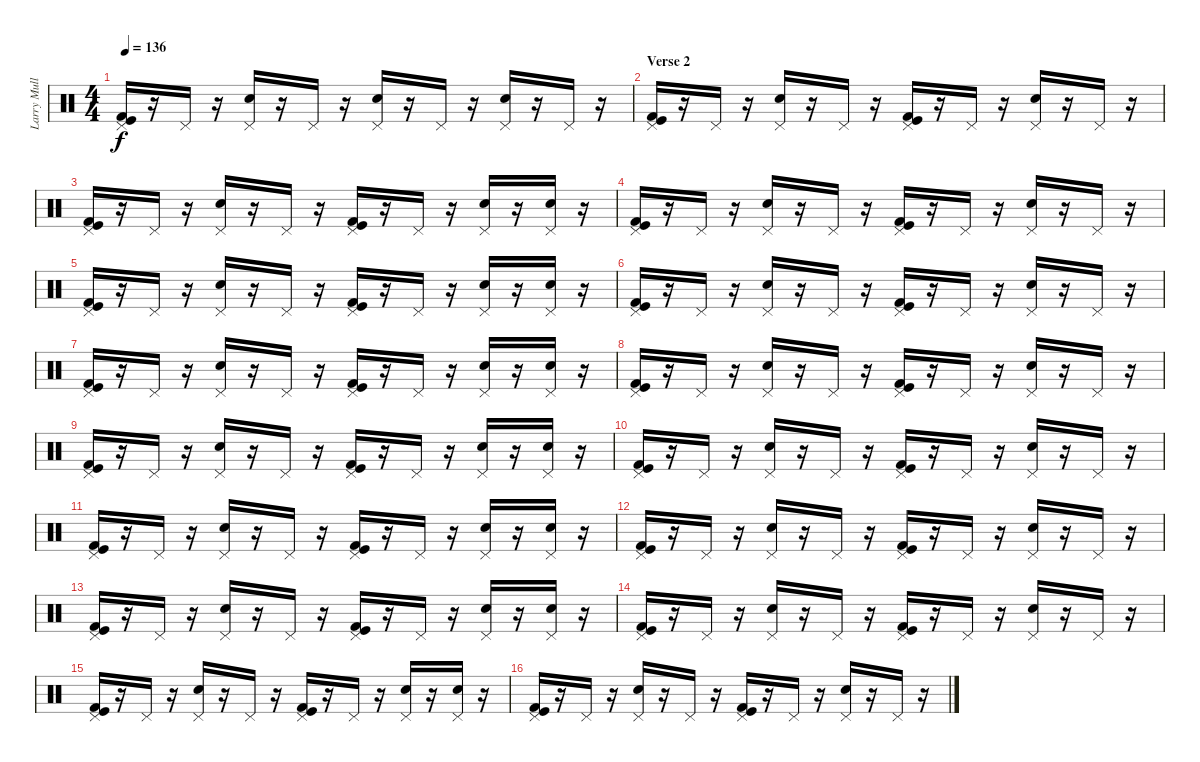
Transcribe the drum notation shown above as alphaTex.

\track ("Larry Mullen Jr." "Larry Mull") {instrument percussion}
\staff {score}
\articulation defaults
\ts (4 4)
\tempo 136
\clef neutral
\ks c
("Kick (hit) 2" "Kick (hit)" "Pedal Hi-Hat (hit)").16{dy f} r.16 "Pedal Hi-Hat (hit)".16 r.16 ("Electric Snare (hit)" "Pedal Hi-Hat (hit)").16 r.16 "Pedal Hi-Hat (hit)".16 r.16 ("Snare (hit) 2" "Pedal Hi-Hat (hit)").16 r.16 "Pedal Hi-Hat (hit)".16 r.16 ("Snare (hit) 2" "Pedal Hi-Hat (hit)").16 r.16 "Pedal Hi-Hat (hit)".16 r.16 |
\section ("" "Verse 2")
("Kick (hit) 2" "Kick (hit)" "Pedal Hi-Hat (hit)").16 r.16 "Pedal Hi-Hat (hit)".16 r.16 ("Snare (hit) 2" "Pedal Hi-Hat (hit)").16 r.16 "Pedal Hi-Hat (hit)".16 r.16 ("Kick (hit) 2" "Kick (hit)" "Pedal Hi-Hat (hit)").16 r.16 "Pedal Hi-Hat (hit)".16 r.16 ("Snare (hit) 2" "Pedal Hi-Hat (hit)").16 r.16 "Pedal Hi-Hat (hit)".16 r.16 |
("Kick (hit) 2" "Kick (hit)" "Pedal Hi-Hat (hit)").16 r.16 "Pedal Hi-Hat (hit)".16 r.16 ("Snare (hit) 2" "Pedal Hi-Hat (hit)").16 r.16 "Pedal Hi-Hat (hit)".16 r.16 ("Kick (hit) 2" "Kick (hit)" "Pedal Hi-Hat (hit)").16 r.16 "Pedal Hi-Hat (hit)".16 r.16 ("Snare (hit) 2" "Pedal Hi-Hat (hit)").16 r.16 ("Snare (hit) 2" "Pedal Hi-Hat (hit)").16 r.16 |
("Kick (hit) 2" "Kick (hit)" "Pedal Hi-Hat (hit)").16 r.16 "Pedal Hi-Hat (hit)".16 r.16 ("Snare (hit) 2" "Pedal Hi-Hat (hit)").16 r.16 "Pedal Hi-Hat (hit)".16 r.16 ("Kick (hit) 2" "Kick (hit)" "Pedal Hi-Hat (hit)").16 r.16 "Pedal Hi-Hat (hit)".16 r.16 ("Snare (hit) 2" "Pedal Hi-Hat (hit)").16 r.16 "Pedal Hi-Hat (hit)".16 r.16 |
("Kick (hit) 2" "Kick (hit)" "Pedal Hi-Hat (hit)").16 r.16 "Pedal Hi-Hat (hit)".16 r.16 ("Snare (hit) 2" "Pedal Hi-Hat (hit)").16 r.16 "Pedal Hi-Hat (hit)".16 r.16 ("Kick (hit) 2" "Kick (hit)" "Pedal Hi-Hat (hit)").16 r.16 "Pedal Hi-Hat (hit)".16 r.16 ("Snare (hit) 2" "Pedal Hi-Hat (hit)").16 r.16 ("Snare (hit) 2" "Pedal Hi-Hat (hit)").16 r.16 |
("Kick (hit) 2" "Kick (hit)" "Pedal Hi-Hat (hit)").16 r.16 "Pedal Hi-Hat (hit)".16 r.16 ("Snare (hit) 2" "Pedal Hi-Hat (hit)").16 r.16 "Pedal Hi-Hat (hit)".16 r.16 ("Kick (hit) 2" "Kick (hit)" "Pedal Hi-Hat (hit)").16 r.16 "Pedal Hi-Hat (hit)".16 r.16 ("Snare (hit) 2" "Pedal Hi-Hat (hit)").16 r.16 "Pedal Hi-Hat (hit)".16 r.16 |
("Kick (hit) 2" "Kick (hit)" "Pedal Hi-Hat (hit)").16 r.16 "Pedal Hi-Hat (hit)".16 r.16 ("Snare (hit) 2" "Pedal Hi-Hat (hit)").16 r.16 "Pedal Hi-Hat (hit)".16 r.16 ("Kick (hit) 2" "Kick (hit)" "Pedal Hi-Hat (hit)").16 r.16 "Pedal Hi-Hat (hit)".16 r.16 ("Snare (hit) 2" "Pedal Hi-Hat (hit)").16 r.16 ("Snare (hit) 2" "Pedal Hi-Hat (hit)").16 r.16 |
("Kick (hit) 2" "Kick (hit)" "Pedal Hi-Hat (hit)").16 r.16 "Pedal Hi-Hat (hit)".16 r.16 ("Snare (hit) 2" "Pedal Hi-Hat (hit)").16 r.16 "Pedal Hi-Hat (hit)".16 r.16 ("Kick (hit) 2" "Kick (hit)" "Pedal Hi-Hat (hit)").16 r.16 "Pedal Hi-Hat (hit)".16 r.16 ("Snare (hit) 2" "Pedal Hi-Hat (hit)").16 r.16 "Pedal Hi-Hat (hit)".16 r.16 |
("Kick (hit) 2" "Kick (hit)" "Pedal Hi-Hat (hit)").16 r.16 "Pedal Hi-Hat (hit)".16 r.16 ("Snare (hit) 2" "Pedal Hi-Hat (hit)").16 r.16 "Pedal Hi-Hat (hit)".16 r.16 ("Kick (hit) 2" "Kick (hit)" "Pedal Hi-Hat (hit)").16 r.16 "Pedal Hi-Hat (hit)".16 r.16 ("Snare (hit) 2" "Pedal Hi-Hat (hit)").16 r.16 ("Snare (hit) 2" "Pedal Hi-Hat (hit)").16 r.16 |
("Kick (hit) 2" "Kick (hit)" "Pedal Hi-Hat (hit)").16 r.16 "Pedal Hi-Hat (hit)".16 r.16 ("Snare (hit) 2" "Pedal Hi-Hat (hit)").16 r.16 "Pedal Hi-Hat (hit)".16 r.16 ("Kick (hit) 2" "Kick (hit)" "Pedal Hi-Hat (hit)").16 r.16 "Pedal Hi-Hat (hit)".16 r.16 ("Snare (hit) 2" "Pedal Hi-Hat (hit)").16 r.16 "Pedal Hi-Hat (hit)".16 r.16 |
("Kick (hit) 2" "Kick (hit)" "Pedal Hi-Hat (hit)").16 r.16 "Pedal Hi-Hat (hit)".16 r.16 ("Snare (hit) 2" "Pedal Hi-Hat (hit)").16 r.16 "Pedal Hi-Hat (hit)".16 r.16 ("Kick (hit) 2" "Kick (hit)" "Pedal Hi-Hat (hit)").16 r.16 "Pedal Hi-Hat (hit)".16 r.16 ("Snare (hit) 2" "Pedal Hi-Hat (hit)").16 r.16 ("Snare (hit) 2" "Pedal Hi-Hat (hit)").16 r.16 |
("Kick (hit) 2" "Kick (hit)" "Pedal Hi-Hat (hit)").16 r.16 "Pedal Hi-Hat (hit)".16 r.16 ("Snare (hit) 2" "Pedal Hi-Hat (hit)").16 r.16 "Pedal Hi-Hat (hit)".16 r.16 ("Kick (hit) 2" "Kick (hit)" "Pedal Hi-Hat (hit)").16 r.16 "Pedal Hi-Hat (hit)".16 r.16 ("Snare (hit) 2" "Pedal Hi-Hat (hit)").16 r.16 "Pedal Hi-Hat (hit)".16 r.16 |
("Kick (hit) 2" "Kick (hit)" "Pedal Hi-Hat (hit)").16 r.16 "Pedal Hi-Hat (hit)".16 r.16 ("Snare (hit) 2" "Pedal Hi-Hat (hit)").16 r.16 "Pedal Hi-Hat (hit)".16 r.16 ("Kick (hit) 2" "Kick (hit)" "Pedal Hi-Hat (hit)").16 r.16 "Pedal Hi-Hat (hit)".16 r.16 ("Snare (hit) 2" "Pedal Hi-Hat (hit)").16 r.16 ("Snare (hit) 2" "Pedal Hi-Hat (hit)").16 r.16 |
("Kick (hit) 2" "Kick (hit)" "Pedal Hi-Hat (hit)").16 r.16 "Pedal Hi-Hat (hit)".16 r.16 ("Snare (hit) 2" "Pedal Hi-Hat (hit)").16 r.16 "Pedal Hi-Hat (hit)".16 r.16 ("Kick (hit) 2" "Kick (hit)" "Pedal Hi-Hat (hit)").16 r.16 "Pedal Hi-Hat (hit)".16 r.16 ("Snare (hit) 2" "Pedal Hi-Hat (hit)").16 r.16 "Pedal Hi-Hat (hit)".16 r.16 |
("Kick (hit) 2" "Kick (hit)" "Pedal Hi-Hat (hit)").16 r.16 "Pedal Hi-Hat (hit)".16 r.16 ("Snare (hit) 2" "Pedal Hi-Hat (hit)").16 r.16 "Pedal Hi-Hat (hit)".16 r.16 ("Kick (hit) 2" "Kick (hit)" "Pedal Hi-Hat (hit)").16 r.16 "Pedal Hi-Hat (hit)".16 r.16 ("Snare (hit) 2" "Pedal Hi-Hat (hit)").16 r.16 ("Snare (hit) 2" "Pedal Hi-Hat (hit)").16 r.16 |
("Kick (hit) 2" "Kick (hit)" "Pedal Hi-Hat (hit)").16 r.16 "Pedal Hi-Hat (hit)".16 r.16 ("Snare (hit) 2" "Pedal Hi-Hat (hit)").16 r.16 "Pedal Hi-Hat (hit)".16 r.16 ("Kick (hit) 2" "Kick (hit)" "Pedal Hi-Hat (hit)").16 r.16 "Pedal Hi-Hat (hit)".16 r.16 ("Snare (hit) 2" "Pedal Hi-Hat (hit)").16 r.16 "Pedal Hi-Hat (hit)".16 r.16
